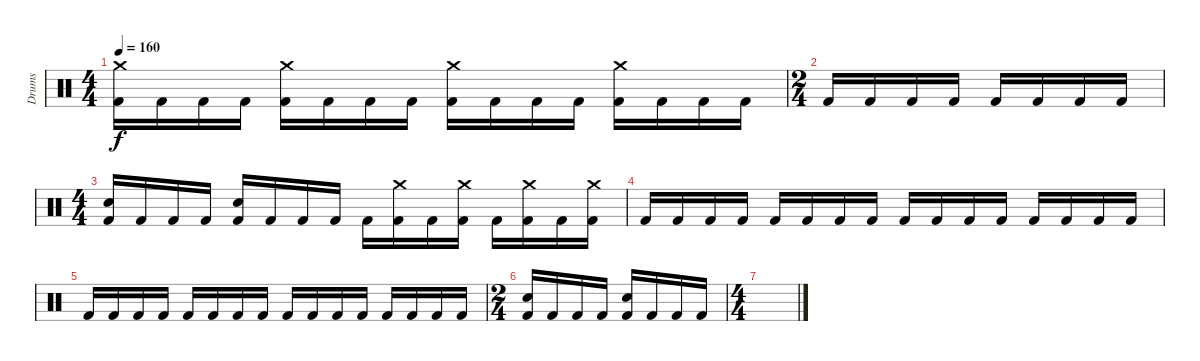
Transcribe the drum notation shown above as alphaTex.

\track ("Drums" "Drums") {instrument percussion}
\staff {score}
\articulation defaults
\ts (4 4)
\tempo 160
\clef neutral
\ks c
("Kick (hit) 2" "Crash medium (hit)").16{dy f} "Kick (hit) 2".16 "Kick (hit) 2".16 "Kick (hit) 2".16 ("Kick (hit) 2" "Crash medium (hit)").16 "Kick (hit) 2".16 "Kick (hit) 2".16 "Kick (hit) 2".16 ("Kick (hit) 2" "Crash medium (hit)").16 "Kick (hit) 2".16 "Kick (hit) 2".16 "Kick (hit) 2".16 ("Kick (hit) 2" "Crash medium (hit)").16 "Kick (hit) 2".16 "Kick (hit) 2".16 "Kick (hit) 2".16 |
\ts (2 4)
"Kick (hit) 2".16 "Kick (hit) 2".16 "Kick (hit) 2".16 "Kick (hit) 2".16 "Kick (hit) 2".16 "Kick (hit) 2".16 "Kick (hit) 2".16 "Kick (hit) 2".16 |
\ts (4 4)
("Kick (hit) 2" "Electric Snare (hit)").16 "Kick (hit) 2".16 "Kick (hit) 2".16 "Kick (hit) 2".16 ("Kick (hit) 2" "Electric Snare (hit)").16 "Kick (hit) 2".16 "Kick (hit) 2".16 "Kick (hit) 2".16 "Kick (hit) 2".16 ("Kick (hit) 2" "Crash medium (hit)").16 "Kick (hit) 2".16 ("Kick (hit) 2" "Crash medium (hit)").16 "Kick (hit) 2".16 ("Kick (hit) 2" "Crash medium (hit)").16 "Kick (hit) 2".16 ("Kick (hit) 2" "Crash medium (hit)").16 |
"Kick (hit) 2".16 "Kick (hit) 2".16 "Kick (hit) 2".16 "Kick (hit) 2".16 "Kick (hit) 2".16 "Kick (hit) 2".16 "Kick (hit) 2".16 "Kick (hit) 2".16 "Kick (hit) 2".16 "Kick (hit) 2".16 "Kick (hit) 2".16 "Kick (hit) 2".16 "Kick (hit) 2".16 "Kick (hit) 2".16 "Kick (hit) 2".16 "Kick (hit) 2".16 |
"Kick (hit) 2".16 "Kick (hit) 2".16 "Kick (hit) 2".16 "Kick (hit) 2".16 "Kick (hit) 2".16 "Kick (hit) 2".16 "Kick (hit) 2".16 "Kick (hit) 2".16 "Kick (hit) 2".16 "Kick (hit) 2".16 "Kick (hit) 2".16 "Kick (hit) 2".16 "Kick (hit) 2".16 "Kick (hit) 2".16 "Kick (hit) 2".16 "Kick (hit) 2".16 |
\ts (2 4)
("Electric Snare (hit)" "Kick (hit) 2").16 "Kick (hit) 2".16 "Kick (hit) 2".16 "Kick (hit) 2".16 ("Electric Snare (hit)" "Kick (hit) 2").16 "Kick (hit) 2".16 "Kick (hit) 2".16 "Kick (hit) 2".16 |
\ts (4 4)
